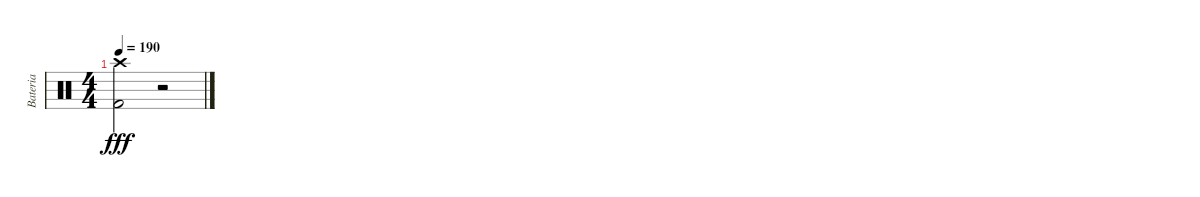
\track ("Bateria" "Bateria") {instrument percussion}
\staff {score}
\articulation defaults
\ts (4 4)
\tempo 190
\clef neutral
\ks c
("Crash high (hit)" "Kick (hit) 2").2{dy fff} r.2
